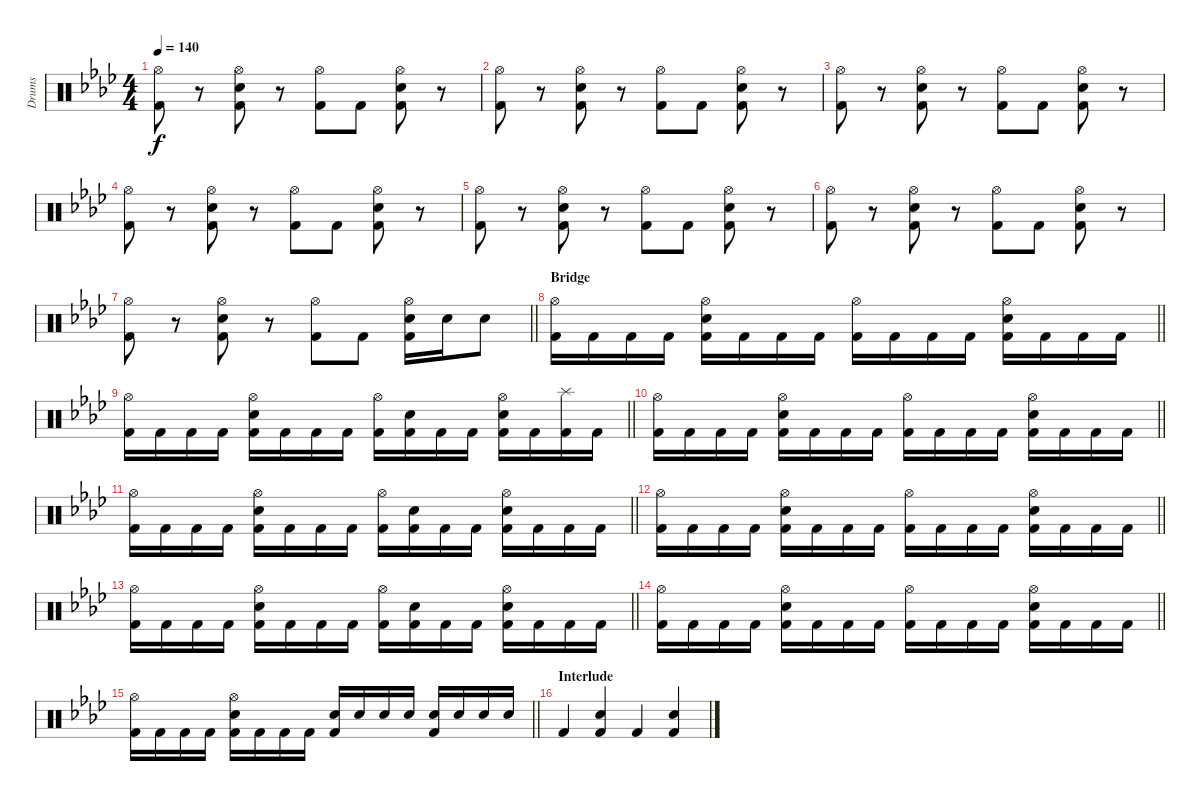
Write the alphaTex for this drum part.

\track ("Drums" "Drums") {instrument percussion}
\staff {score}
\articulation defaults
\ts (4 4)
\tempo 140
\clef neutral
\ks ab
("Hi-Hat (open)" "Kick (hit) 2").8{dy f} r.8 ("Hi-Hat (open)" "Electric Snare (hit)" "Kick (hit) 2").8 r.8 ("Hi-Hat (open)" "Kick (hit) 2").8 "Kick (hit) 2".8 ("Hi-Hat (open)" "Electric Snare (hit)" "Kick (hit) 2").8 r.8 |
("Hi-Hat (open)" "Kick (hit) 2").8 r.8 ("Hi-Hat (open)" "Electric Snare (hit)" "Kick (hit) 2").8 r.8 ("Hi-Hat (open)" "Kick (hit) 2").8 "Kick (hit) 2".8 ("Hi-Hat (open)" "Electric Snare (hit)" "Kick (hit) 2").8 r.8 |
("Hi-Hat (open)" "Kick (hit) 2").8 r.8 ("Hi-Hat (open)" "Electric Snare (hit)" "Kick (hit) 2").8 r.8 ("Hi-Hat (open)" "Kick (hit) 2").8 "Kick (hit) 2".8 ("Hi-Hat (open)" "Electric Snare (hit)" "Kick (hit) 2").8 r.8 |
("Hi-Hat (open)" "Kick (hit) 2").8 r.8 ("Hi-Hat (open)" "Electric Snare (hit)" "Kick (hit) 2").8 r.8 ("Hi-Hat (open)" "Kick (hit) 2").8 "Kick (hit) 2".8 ("Hi-Hat (open)" "Electric Snare (hit)" "Kick (hit) 2").8 r.8 |
("Hi-Hat (open)" "Kick (hit) 2").8 r.8 ("Hi-Hat (open)" "Electric Snare (hit)" "Kick (hit) 2").8 r.8 ("Hi-Hat (open)" "Kick (hit) 2").8 "Kick (hit) 2".8 ("Hi-Hat (open)" "Electric Snare (hit)" "Kick (hit) 2").8 r.8 |
("Hi-Hat (open)" "Kick (hit) 2").8 r.8 ("Hi-Hat (open)" "Electric Snare (hit)" "Kick (hit) 2").8 r.8 ("Hi-Hat (open)" "Kick (hit) 2").8 "Kick (hit) 2".8 ("Hi-Hat (open)" "Electric Snare (hit)" "Kick (hit) 2").8 r.8 |
\barLineRight lightlight
("Hi-Hat (open)" "Kick (hit) 2").8 r.8 ("Hi-Hat (open)" "Electric Snare (hit)" "Kick (hit) 2").8 r.8 ("Hi-Hat (open)" "Kick (hit) 2").8 "Kick (hit) 2".8 ("Hi-Hat (open)" "Electric Snare (hit)" "Kick (hit) 2").16 "Electric Snare (hit)".16 "Electric Snare (hit)".8 |
\section ("" "Bridge")
\barLineRight lightlight
("Hi-Hat (open)" "Kick (hit) 2").16 "Kick (hit) 2".16 "Kick (hit) 2".16 "Kick (hit) 2".16 ("Hi-Hat (open)" "Electric Snare (hit)" "Kick (hit) 2").16 "Kick (hit) 2".16 "Kick (hit) 2".16 "Kick (hit) 2".16 ("Hi-Hat (open)" "Kick (hit) 2").16 "Kick (hit) 2".16 "Kick (hit) 2".16 "Kick (hit) 2".16 ("Hi-Hat (open)" "Electric Snare (hit)" "Kick (hit) 2").16 "Kick (hit) 2".16 "Kick (hit) 2".16 "Kick (hit) 2".16 |
\barLineRight lightlight
("Hi-Hat (open)" "Kick (hit) 2").16 "Kick (hit) 2".16 "Kick (hit) 2".16 "Kick (hit) 2".16 ("Hi-Hat (open)" "Electric Snare (hit)" "Kick (hit) 2").16 "Kick (hit) 2".16 "Kick (hit) 2".16 "Kick (hit) 2".16 ("Hi-Hat (open)" "Kick (hit) 2").16 ("Electric Snare (hit)" "Kick (hit) 2").16 "Kick (hit) 2".16 "Kick (hit) 2".16 ("Hi-Hat (open)" "Electric Snare (hit)" "Kick (hit) 2").16 "Kick (hit) 2".16 ("Splash (hit)" "Kick (hit) 2").16 "Kick (hit) 2".16 |
\barLineRight lightlight
("Hi-Hat (open)" "Kick (hit) 2").16 "Kick (hit) 2".16 "Kick (hit) 2".16 "Kick (hit) 2".16 ("Hi-Hat (open)" "Electric Snare (hit)" "Kick (hit) 2").16 "Kick (hit) 2".16 "Kick (hit) 2".16 "Kick (hit) 2".16 ("Hi-Hat (open)" "Kick (hit) 2").16 "Kick (hit) 2".16 "Kick (hit) 2".16 "Kick (hit) 2".16 ("Hi-Hat (open)" "Electric Snare (hit)" "Kick (hit) 2").16 "Kick (hit) 2".16 "Kick (hit) 2".16 "Kick (hit) 2".16 |
\barLineRight lightlight
("Hi-Hat (open)" "Kick (hit) 2").16 "Kick (hit) 2".16 "Kick (hit) 2".16 "Kick (hit) 2".16 ("Hi-Hat (open)" "Electric Snare (hit)" "Kick (hit) 2").16 "Kick (hit) 2".16 "Kick (hit) 2".16 "Kick (hit) 2".16 ("Hi-Hat (open)" "Kick (hit) 2").16 ("Electric Snare (hit)" "Kick (hit) 2").16 "Kick (hit) 2".16 "Kick (hit) 2".16 ("Hi-Hat (open)" "Electric Snare (hit)" "Kick (hit) 2").16 "Kick (hit) 2".16 "Kick (hit) 2".16 "Kick (hit) 2".16 |
\barLineRight lightlight
("Hi-Hat (open)" "Kick (hit) 2").16 "Kick (hit) 2".16 "Kick (hit) 2".16 "Kick (hit) 2".16 ("Hi-Hat (open)" "Electric Snare (hit)" "Kick (hit) 2").16 "Kick (hit) 2".16 "Kick (hit) 2".16 "Kick (hit) 2".16 ("Hi-Hat (open)" "Kick (hit) 2").16 "Kick (hit) 2".16 "Kick (hit) 2".16 "Kick (hit) 2".16 ("Hi-Hat (open)" "Electric Snare (hit)" "Kick (hit) 2").16 "Kick (hit) 2".16 "Kick (hit) 2".16 "Kick (hit) 2".16 |
\barLineRight lightlight
("Hi-Hat (open)" "Kick (hit) 2").16 "Kick (hit) 2".16 "Kick (hit) 2".16 "Kick (hit) 2".16 ("Hi-Hat (open)" "Electric Snare (hit)" "Kick (hit) 2").16 "Kick (hit) 2".16 "Kick (hit) 2".16 "Kick (hit) 2".16 ("Hi-Hat (open)" "Kick (hit) 2").16 ("Electric Snare (hit)" "Kick (hit) 2").16 "Kick (hit) 2".16 "Kick (hit) 2".16 ("Hi-Hat (open)" "Electric Snare (hit)" "Kick (hit) 2").16 "Kick (hit) 2".16 "Kick (hit) 2".16 "Kick (hit) 2".16 |
\barLineRight lightlight
("Hi-Hat (open)" "Kick (hit) 2").16 "Kick (hit) 2".16 "Kick (hit) 2".16 "Kick (hit) 2".16 ("Hi-Hat (open)" "Electric Snare (hit)" "Kick (hit) 2").16 "Kick (hit) 2".16 "Kick (hit) 2".16 "Kick (hit) 2".16 ("Hi-Hat (open)" "Kick (hit) 2").16 "Kick (hit) 2".16 "Kick (hit) 2".16 "Kick (hit) 2".16 ("Hi-Hat (open)" "Electric Snare (hit)" "Kick (hit) 2").16 "Kick (hit) 2".16 "Kick (hit) 2".16 "Kick (hit) 2".16 |
\barLineRight lightlight
("Hi-Hat (open)" "Kick (hit) 2").16 "Kick (hit) 2".16 "Kick (hit) 2".16 "Kick (hit) 2".16 ("Hi-Hat (open)" "Electric Snare (hit)" "Kick (hit) 2").16 "Kick (hit) 2".16 "Kick (hit) 2".16 "Kick (hit) 2".16 ("Electric Snare (hit)" "Kick (hit) 2").16 "Electric Snare (hit)".16 "Electric Snare (hit)".16 "Electric Snare (hit)".16 ("Electric Snare (hit)" "Kick (hit) 2").16 "Electric Snare (hit)".16 "Electric Snare (hit)".16 "Electric Snare (hit)".16 |
\section ("" "Interlude")
"Kick (hit) 2".4 ("Electric Snare (hit)" "Kick (hit) 2").4 "Kick (hit) 2".4 ("Electric Snare (hit)" "Kick (hit) 2").4
